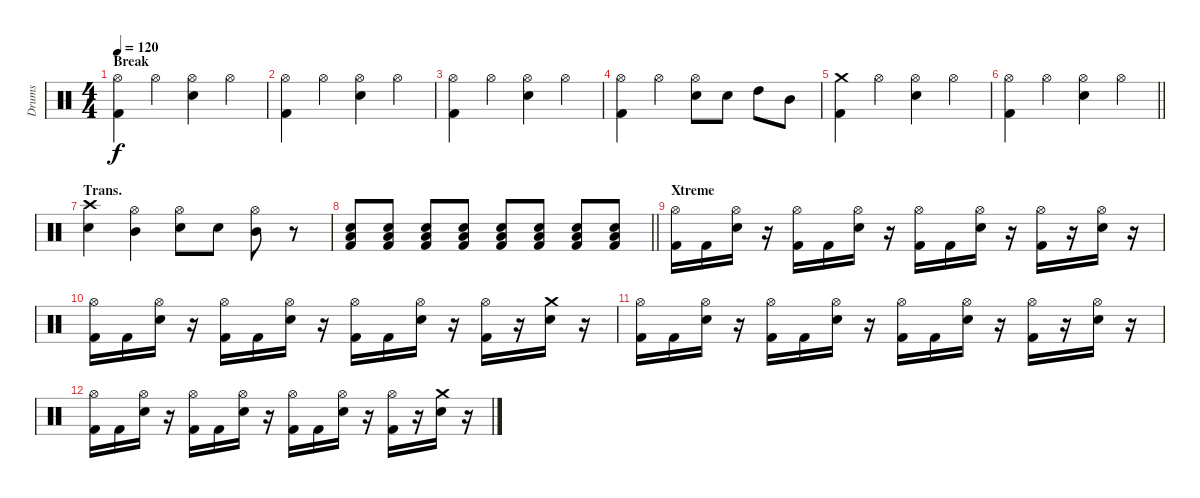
\track ("Drums" "Drums") {instrument percussion}
\staff {score}
\articulation defaults
\ts (4 4)
\section ("" "Break")
\tempo 120
\clef neutral
\ks c
("Hi-Hat (open)" "Kick (hit) 2").4{dy f} "Hi-Hat (open)".4 ("Hi-Hat (open)" "Electric Snare (hit)").4 "Hi-Hat (open)".4 |
("Hi-Hat (open)" "Kick (hit) 2").4 "Hi-Hat (open)".4 ("Hi-Hat (open)" "Electric Snare (hit)").4 "Hi-Hat (open)".4 |
("Hi-Hat (open)" "Kick (hit) 2").4 "Hi-Hat (open)".4 ("Hi-Hat (open)" "Electric Snare (hit)").4 "Hi-Hat (open)".4 |
("Hi-Hat (open)" "Kick (hit) 2").4 "Hi-Hat (open)".4 ("Hi-Hat (open)" "Electric Snare (hit)").8 "Electric Snare (hit)".8 "High Tom (hit)".8 "Mid Tom (hit)".8 |
("Crash medium (hit)" "Kick (hit) 2").4 "Hi-Hat (open)".4 ("Hi-Hat (open)" "Electric Snare (hit)").4 "Hi-Hat (open)".4 |
\barLineRight lightlight
("Hi-Hat (open)" "Kick (hit) 2").4 "Hi-Hat (open)".4 ("Hi-Hat (open)" "Electric Snare (hit)").4 "Hi-Hat (open)".4 |
\section ("" "Trans.")
("Crash high (hit)" "Electric Snare (hit)").4 ("Hi-Hat (open)" "Mid Tom (hit)").4 ("Hi-Hat (open)" "Electric Snare (hit)").8 "Electric Snare (hit)".8 ("Hi-Hat (open)" "Mid Tom (hit)").8 r.8 |
\barLineRight lightlight
("Low Floor Tom (hit)" "Electric Snare (hit)" "Kick (hit) 2").8 ("Low Floor Tom (hit)" "Electric Snare (hit)" "Kick (hit) 2").8 ("Low Floor Tom (hit)" "Electric Snare (hit)" "Kick (hit) 2").8 ("Low Floor Tom (hit)" "Electric Snare (hit)" "Kick (hit) 2").8 ("Low Floor Tom (hit)" "Electric Snare (hit)" "Kick (hit) 2").8 ("Low Floor Tom (hit)" "Electric Snare (hit)" "Kick (hit) 2").8 ("Low Floor Tom (hit)" "Electric Snare (hit)" "Kick (hit) 2").8 ("Low Floor Tom (hit)" "Electric Snare (hit)" "Kick (hit) 2").8 |
\section ("" "Xtreme")
("Hi-Hat (open)" "Kick (hit) 2").16 "Kick (hit) 2".16 ("Hi-Hat (open)" "Electric Snare (hit)").16 r.16 ("Hi-Hat (open)" "Kick (hit) 2").16 "Kick (hit) 2".16 ("Hi-Hat (open)" "Electric Snare (hit)").16 r.16 ("Hi-Hat (open)" "Kick (hit) 2").16 "Kick (hit) 2".16 ("Hi-Hat (open)" "Electric Snare (hit)").16 r.16 ("Hi-Hat (open)" "Kick (hit) 2").16 r.16 ("Hi-Hat (open)" "Electric Snare (hit)").16 r.16 |
("Hi-Hat (open)" "Kick (hit) 2").16 "Kick (hit) 2".16 ("Hi-Hat (open)" "Electric Snare (hit)").16 r.16 ("Hi-Hat (open)" "Kick (hit) 2").16 "Kick (hit) 2".16 ("Hi-Hat (open)" "Electric Snare (hit)").16 r.16 ("Hi-Hat (open)" "Kick (hit) 2").16 "Kick (hit) 2".16 ("Hi-Hat (open)" "Electric Snare (hit)").16 r.16 ("Hi-Hat (open)" "Kick (hit) 2").16 r.16 ("Crash medium (hit)" "Electric Snare (hit)").16 r.16 |
("Hi-Hat (open)" "Kick (hit) 2").16 "Kick (hit) 2".16 ("Hi-Hat (open)" "Electric Snare (hit)").16 r.16 ("Hi-Hat (open)" "Kick (hit) 2").16 "Kick (hit) 2".16 ("Hi-Hat (open)" "Electric Snare (hit)").16 r.16 ("Hi-Hat (open)" "Kick (hit) 2").16 "Kick (hit) 2".16 ("Hi-Hat (open)" "Electric Snare (hit)").16 r.16 ("Hi-Hat (open)" "Kick (hit) 2").16 r.16 ("Hi-Hat (open)" "Electric Snare (hit)").16 r.16 |
("Hi-Hat (open)" "Kick (hit) 2").16 "Kick (hit) 2".16 ("Hi-Hat (open)" "Electric Snare (hit)").16 r.16 ("Hi-Hat (open)" "Kick (hit) 2").16 "Kick (hit) 2".16 ("Hi-Hat (open)" "Electric Snare (hit)").16 r.16 ("Hi-Hat (open)" "Kick (hit) 2").16 "Kick (hit) 2".16 ("Hi-Hat (open)" "Electric Snare (hit)").16 r.16 ("Hi-Hat (open)" "Kick (hit) 2").16 r.16 ("Crash medium (hit)" "Electric Snare (hit)").16 r.16
